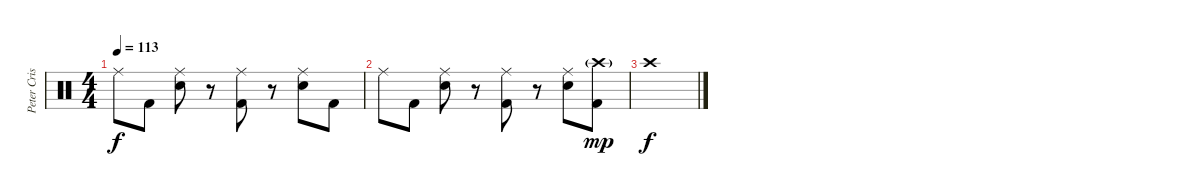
\track ("Peter Criss" "Peter Cris") {instrument percussion}
\staff {score}
\articulation defaults
\ts (4 4)
\tempo 113
\clef neutral
\ks c "Ride (middle)".8{dy f} "Kick (hit) 2".8
("Ride (middle)" "Electric Snare (hit)").8 r.8 ("Ride (middle)" "Kick (hit) 2").8 r.8 ("Ride (middle)" "Electric Snare (hit)").8 "Kick (hit) 2".8 |
"Ride (middle)".8 "Kick (hit) 2".8 ("Ride (middle)" "Electric Snare (hit)").8 r.8 ("Ride (middle)" "Kick (hit) 2").8 r.8 ("Ride (middle)" "Electric Snare (hit)").8 ("Crash high (hit)"{g} "Kick (hit) 2").8{dy mp} |
"Crash high (hit)".1{dy f}
